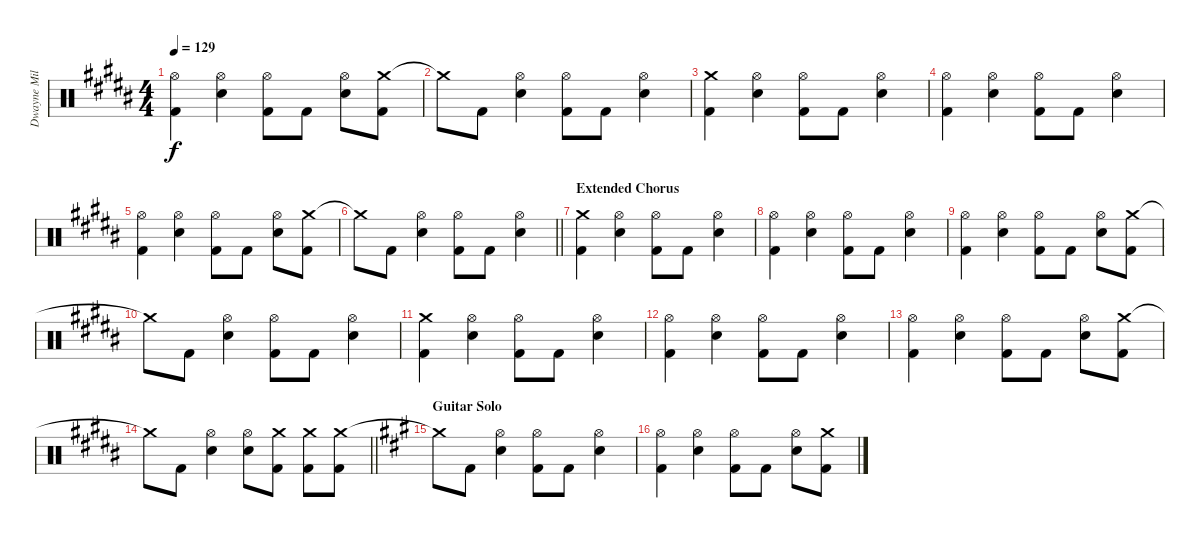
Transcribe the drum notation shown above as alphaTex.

\track ("Dwayne Miller" "Dwayne Mil") {instrument percussion}
\staff {score}
\articulation defaults
\ts (4 4)
\tempo 129
\clef neutral
\ks b
("Hi-Hat (open)" "Kick (hit) 2").4{dy f} ("Hi-Hat (open)" "Snare (hit) 2").4 ("Hi-Hat (open)" "Kick (hit) 2").8 "Kick (hit) 2".8 ("Hi-Hat (open)" "Snare (hit) 2").8 ("Crash medium (hit)" "Kick (hit) 2").8 |
"Crash medium (hit)"{t}.8 "Kick (hit) 2".8 ("Hi-Hat (open)" "Snare (hit) 2").4 ("Hi-Hat (open)" "Kick (hit) 2").8 "Kick (hit) 2".8 ("Hi-Hat (open)" "Snare (hit) 2").4 |
("Crash medium (hit)" "Kick (hit) 2").4 ("Hi-Hat (open)" "Snare (hit) 2").4 ("Hi-Hat (open)" "Kick (hit) 2").8 "Kick (hit) 2".8 ("Hi-Hat (open)" "Snare (hit) 2").4 |
("Hi-Hat (open)" "Kick (hit) 2").4 ("Hi-Hat (open)" "Snare (hit) 2").4 ("Hi-Hat (open)" "Kick (hit) 2").8 "Kick (hit) 2".8 ("Hi-Hat (open)" "Snare (hit) 2").4 |
("Hi-Hat (open)" "Kick (hit) 2").4 ("Hi-Hat (open)" "Snare (hit) 2").4 ("Hi-Hat (open)" "Kick (hit) 2").8 "Kick (hit) 2".8 ("Hi-Hat (open)" "Snare (hit) 2").8 ("Crash medium (hit)" "Kick (hit) 2").8 |
\barLineRight lightlight "Crash medium (hit)"{t}.8 "Kick (hit) 2".8
("Hi-Hat (open)" "Snare (hit) 2").4 ("Hi-Hat (open)" "Kick (hit) 2").8 "Kick (hit) 2".8 ("Hi-Hat (open)" "Snare (hit) 2").4 |
\section ("" "Extended Chorus")
("Crash medium (hit)" "Kick (hit) 2").4 ("Hi-Hat (open)" "Snare (hit) 2").4 ("Hi-Hat (open)" "Kick (hit) 2").8 "Kick (hit) 2".8 ("Hi-Hat (open)" "Snare (hit) 2").4 |
("Hi-Hat (open)" "Kick (hit) 2").4 ("Hi-Hat (open)" "Snare (hit) 2").4 ("Hi-Hat (open)" "Kick (hit) 2").8 "Kick (hit) 2".8 ("Hi-Hat (open)" "Snare (hit) 2").4 |
("Hi-Hat (open)" "Kick (hit) 2").4 ("Hi-Hat (open)" "Snare (hit) 2").4 ("Hi-Hat (open)" "Kick (hit) 2").8 "Kick (hit) 2".8 ("Hi-Hat (open)" "Snare (hit) 2").8 ("Crash medium (hit)" "Kick (hit) 2").8 |
"Crash medium (hit)"{t}.8 "Kick (hit) 2".8 ("Hi-Hat (open)" "Snare (hit) 2").4 ("Hi-Hat (open)" "Kick (hit) 2").8 "Kick (hit) 2".8 ("Hi-Hat (open)" "Snare (hit) 2").4 |
("Crash medium (hit)" "Kick (hit) 2").4 ("Hi-Hat (open)" "Snare (hit) 2").4 ("Hi-Hat (open)" "Kick (hit) 2").8 "Kick (hit) 2".8 ("Hi-Hat (open)" "Snare (hit) 2").4 |
("Hi-Hat (open)" "Kick (hit) 2").4 ("Hi-Hat (open)" "Snare (hit) 2").4 ("Hi-Hat (open)" "Kick (hit) 2").8 "Kick (hit) 2".8 ("Hi-Hat (open)" "Snare (hit) 2").4 |
("Hi-Hat (open)" "Kick (hit) 2").4 ("Hi-Hat (open)" "Snare (hit) 2").4 ("Hi-Hat (open)" "Kick (hit) 2").8 "Kick (hit) 2".8 ("Hi-Hat (open)" "Snare (hit) 2").8 ("Crash medium (hit)" "Kick (hit) 2").8 |
\barLineRight lightlight "Crash medium (hit)"{t}.8 "Kick (hit) 2".8
("Hi-Hat (open)" "Snare (hit) 2").4 ("Hi-Hat (open)" "Snare (hit) 2").8 ("Crash medium (hit)" "Kick (hit) 2").8 ("Crash medium (hit)" "Kick (hit) 2").8 ("Crash medium (hit)" "Kick (hit) 2").8 |
\section ("" "Guitar Solo")
\ks a "Crash medium (hit)"{t}.8 "Kick (hit) 2".8
("Hi-Hat (open)" "Snare (hit) 2").4 ("Hi-Hat (open)" "Kick (hit) 2").8 "Kick (hit) 2".8 ("Hi-Hat (open)" "Snare (hit) 2").4 |
("Hi-Hat (open)" "Kick (hit) 2").4 ("Hi-Hat (open)" "Snare (hit) 2").4 ("Hi-Hat (open)" "Kick (hit) 2").8 "Kick (hit) 2".8 ("Hi-Hat (open)" "Snare (hit) 2").8 ("Crash medium (hit)" "Kick (hit) 2").8
